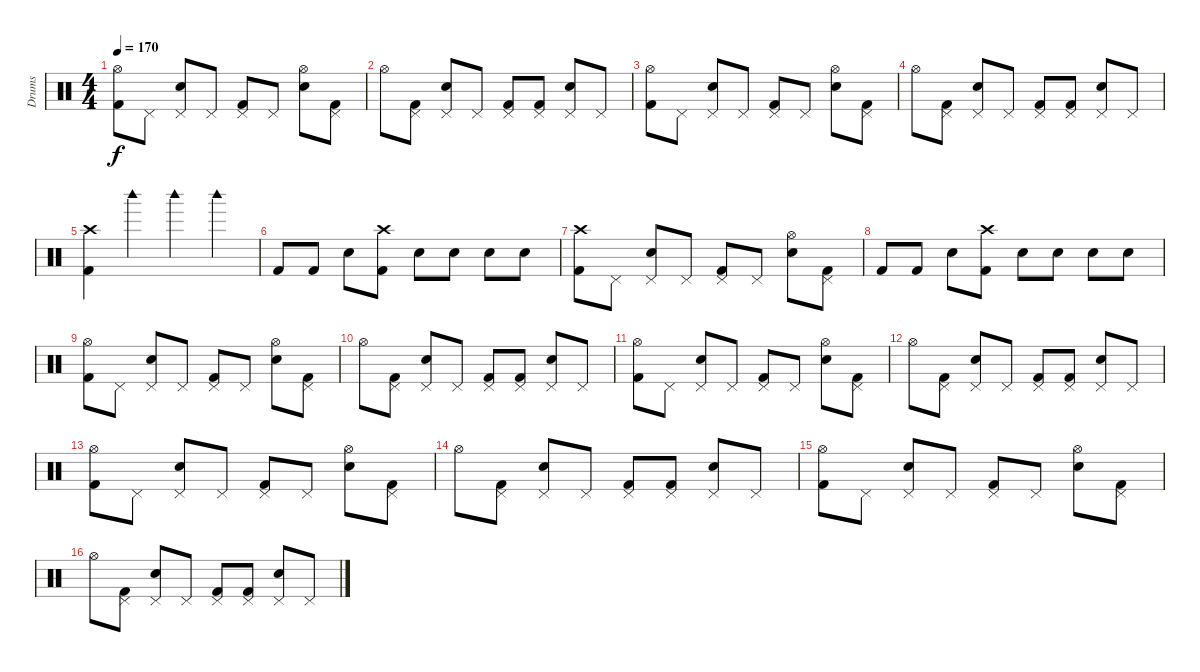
\track ("Drums" "Drums") {instrument percussion}
\staff {score}
\articulation defaults
\ts (4 4)
\tempo 170
\clef neutral
\ks c
("Hi-Hat (open)" "Kick (hit) 2").8{dy f} "Pedal Hi-Hat (hit)".8 ("Pedal Hi-Hat (hit)" "Snare (hit) 2").8 "Pedal Hi-Hat (hit)".8 ("Pedal Hi-Hat (hit)" "Kick (hit) 2").8 "Pedal Hi-Hat (hit)".8 ("Hi-Hat (open)" "Snare (hit) 2").8 ("Pedal Hi-Hat (hit)" "Kick (hit) 2").8 |
"Hi-Hat (open)".8 ("Pedal Hi-Hat (hit)" "Kick (hit) 2").8 ("Pedal Hi-Hat (hit)" "Snare (hit) 2").8 "Pedal Hi-Hat (hit)".8 ("Pedal Hi-Hat (hit)" "Kick (hit) 2").8 ("Pedal Hi-Hat (hit)" "Kick (hit) 2").8 ("Pedal Hi-Hat (hit)" "Snare (hit) 2").8 "Pedal Hi-Hat (hit)".8 |
("Hi-Hat (open)" "Kick (hit) 2").8 "Pedal Hi-Hat (hit)".8 ("Pedal Hi-Hat (hit)" "Snare (hit) 2").8 "Pedal Hi-Hat (hit)".8 ("Pedal Hi-Hat (hit)" "Kick (hit) 2").8 "Pedal Hi-Hat (hit)".8 ("Hi-Hat (open)" "Snare (hit) 2").8 ("Pedal Hi-Hat (hit)" "Kick (hit) 2").8 |
"Hi-Hat (open)".8 ("Pedal Hi-Hat (hit)" "Kick (hit) 2").8 ("Pedal Hi-Hat (hit)" "Snare (hit) 2").8 "Pedal Hi-Hat (hit)".8 ("Pedal Hi-Hat (hit)" "Kick (hit) 2").8 ("Pedal Hi-Hat (hit)" "Kick (hit) 2").8 ("Pedal Hi-Hat (hit)" "Snare (hit) 2").8 "Pedal Hi-Hat (hit)".8 |
("Crash high (hit)" "Kick (hit) 2").4 "Woodblock high (hit)".4 "Woodblock high (hit)".4 "Woodblock high (hit)".4 |
"Kick (hit) 2".8 "Kick (hit) 2".8 "Snare (hit) 2".8 ("Crash high (hit)" "Kick (hit) 2").8 "Snare (hit) 2".8 "Snare (hit) 2".8 "Snare (hit) 2".8 "Snare (hit) 2".8 |
("Crash high (hit)" "Kick (hit) 2").8 "Pedal Hi-Hat (hit)".8 ("Pedal Hi-Hat (hit)" "Snare (hit) 2").8 "Pedal Hi-Hat (hit)".8 ("Pedal Hi-Hat (hit)" "Kick (hit) 2").8 "Pedal Hi-Hat (hit)".8 ("Hi-Hat (open)" "Snare (hit) 2").8 ("Pedal Hi-Hat (hit)" "Kick (hit) 2").8 |
"Kick (hit) 2".8 "Kick (hit) 2".8 "Snare (hit) 2".8 ("Crash high (hit)" "Kick (hit) 2").8 "Snare (hit) 2".8 "Snare (hit) 2".8 "Snare (hit) 2".8 "Snare (hit) 2".8 |
("Hi-Hat (open)" "Kick (hit) 2").8 "Pedal Hi-Hat (hit)".8 ("Pedal Hi-Hat (hit)" "Snare (hit) 2").8 "Pedal Hi-Hat (hit)".8 ("Pedal Hi-Hat (hit)" "Kick (hit) 2").8 "Pedal Hi-Hat (hit)".8 ("Hi-Hat (open)" "Snare (hit) 2").8 ("Pedal Hi-Hat (hit)" "Kick (hit) 2").8 |
"Hi-Hat (open)".8 ("Pedal Hi-Hat (hit)" "Kick (hit) 2").8 ("Pedal Hi-Hat (hit)" "Snare (hit) 2").8 "Pedal Hi-Hat (hit)".8 ("Pedal Hi-Hat (hit)" "Kick (hit) 2").8 ("Pedal Hi-Hat (hit)" "Kick (hit) 2").8 ("Pedal Hi-Hat (hit)" "Snare (hit) 2").8 "Pedal Hi-Hat (hit)".8 |
("Hi-Hat (open)" "Kick (hit) 2").8 "Pedal Hi-Hat (hit)".8 ("Pedal Hi-Hat (hit)" "Snare (hit) 2").8 "Pedal Hi-Hat (hit)".8 ("Pedal Hi-Hat (hit)" "Kick (hit) 2").8 "Pedal Hi-Hat (hit)".8 ("Hi-Hat (open)" "Snare (hit) 2").8 ("Pedal Hi-Hat (hit)" "Kick (hit) 2").8 |
"Hi-Hat (open)".8 ("Pedal Hi-Hat (hit)" "Kick (hit) 2").8 ("Pedal Hi-Hat (hit)" "Snare (hit) 2").8 "Pedal Hi-Hat (hit)".8 ("Pedal Hi-Hat (hit)" "Kick (hit) 2").8 ("Pedal Hi-Hat (hit)" "Kick (hit) 2").8 ("Pedal Hi-Hat (hit)" "Snare (hit) 2").8 "Pedal Hi-Hat (hit)".8 |
("Hi-Hat (open)" "Kick (hit) 2").8 "Pedal Hi-Hat (hit)".8 ("Pedal Hi-Hat (hit)" "Snare (hit) 2").8 "Pedal Hi-Hat (hit)".8 ("Pedal Hi-Hat (hit)" "Kick (hit) 2").8 "Pedal Hi-Hat (hit)".8 ("Hi-Hat (open)" "Snare (hit) 2").8 ("Pedal Hi-Hat (hit)" "Kick (hit) 2").8 |
"Hi-Hat (open)".8 ("Pedal Hi-Hat (hit)" "Kick (hit) 2").8 ("Pedal Hi-Hat (hit)" "Snare (hit) 2").8 "Pedal Hi-Hat (hit)".8 ("Pedal Hi-Hat (hit)" "Kick (hit) 2").8 ("Pedal Hi-Hat (hit)" "Kick (hit) 2").8 ("Pedal Hi-Hat (hit)" "Snare (hit) 2").8 "Pedal Hi-Hat (hit)".8 |
("Hi-Hat (open)" "Kick (hit) 2").8 "Pedal Hi-Hat (hit)".8 ("Pedal Hi-Hat (hit)" "Snare (hit) 2").8 "Pedal Hi-Hat (hit)".8 ("Pedal Hi-Hat (hit)" "Kick (hit) 2").8 "Pedal Hi-Hat (hit)".8 ("Hi-Hat (open)" "Snare (hit) 2").8 ("Pedal Hi-Hat (hit)" "Kick (hit) 2").8 |
"Hi-Hat (open)".8 ("Pedal Hi-Hat (hit)" "Kick (hit) 2").8 ("Pedal Hi-Hat (hit)" "Snare (hit) 2").8 "Pedal Hi-Hat (hit)".8 ("Pedal Hi-Hat (hit)" "Kick (hit) 2").8 ("Pedal Hi-Hat (hit)" "Kick (hit) 2").8 ("Pedal Hi-Hat (hit)" "Snare (hit) 2").8 "Pedal Hi-Hat (hit)".8
